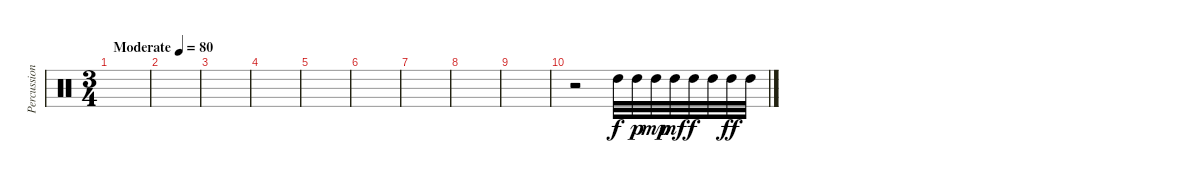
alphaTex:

\track ("Percussion" "Percussion") {instrument percussion}
\staff {score}
\articulation defaults
\ts (3 4)
\tempo (80 "Moderate")
\clef neutral
\ks c
|
|
|
|
|
|
|
|
|
r.2 "High Tom (hit)".32 "High Tom (hit)".32{dy p} "High Tom (hit)".32{dy mp} "High Tom (hit)".32{dy mf} "High Tom (hit)".32{dy f} "High Tom (hit)".32 "High Tom (hit)".32{dy ff} "High Tom (hit)".32
